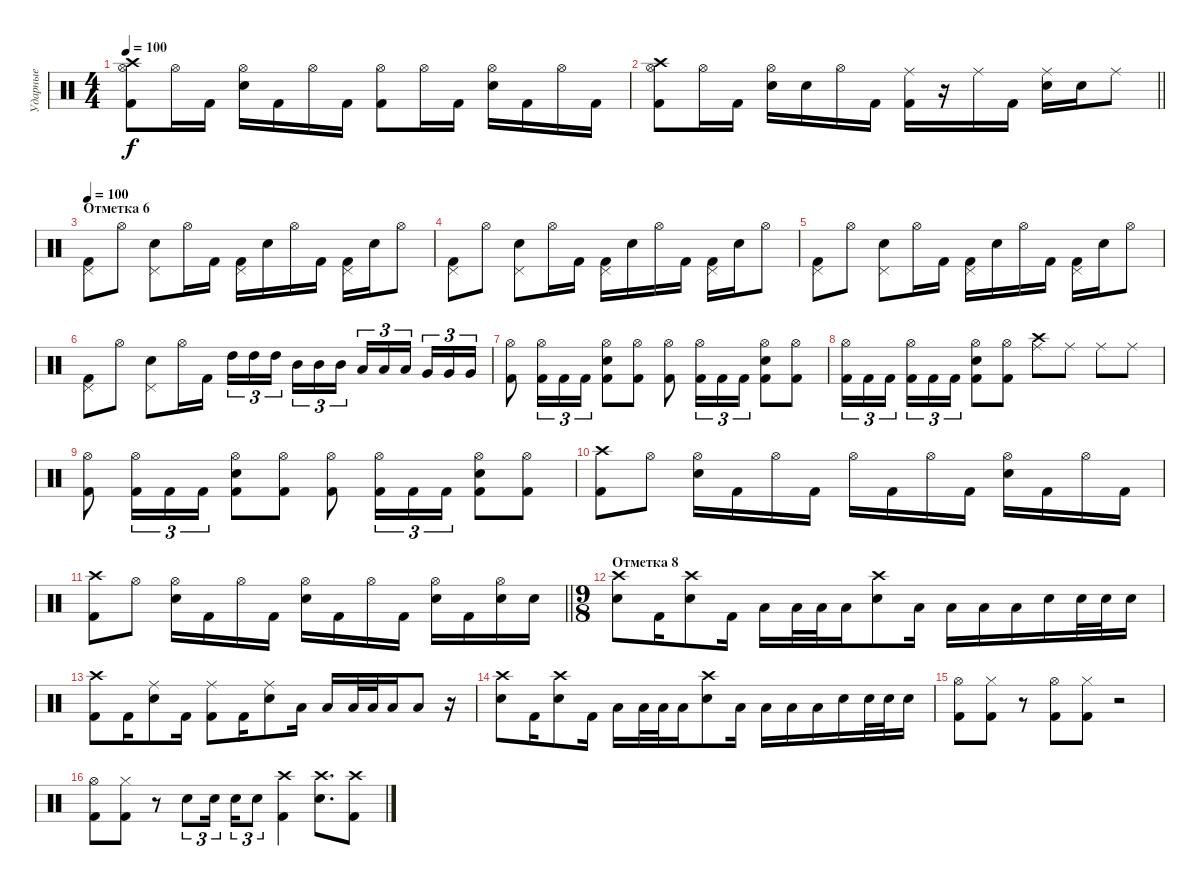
\track ("Ударные" "Ударные") {instrument percussion}
\staff {score}
\articulation defaults
\ts (4 4)
\tempo 100
\clef neutral
\ks c
("Crash high (hit)" "Kick (hit) 2" "Hi-Hat (open)").8{dy f} "Hi-Hat (open)".16 "Kick (hit) 2".16 ("Electric Snare (hit)" "Hi-Hat (open)").16 "Kick (hit) 2".16 "Hi-Hat (open)".16 "Kick (hit) 2".16 ("Kick (hit) 2" "Hi-Hat (open)").8 "Hi-Hat (open)".16 "Kick (hit) 2".16 ("Electric Snare (hit)" "Hi-Hat (open)").16 "Kick (hit) 2".16 "Hi-Hat (open)".16 "Kick (hit) 2".16 |
\barLineRight lightlight
("Crash high (hit)" "Kick (hit) 2" "Hi-Hat (open)").8 "Hi-Hat (open)".16 "Kick (hit) 2".16 ("Electric Snare (hit)" "Hi-Hat (open)").16 "Electric Snare (hit)".16 "Hi-Hat (open)".16 "Kick (hit) 2".16 ("Kick (hit) 2" "Ride (middle)").16 r.16 "Ride (middle)".16 "Kick (hit) 2".16 ("Electric Snare (hit)" "Ride (middle)").16 "Electric Snare (hit)".16 "Ride (middle)".8 |
\section ("" "Отметка 6")
\tempo 90
\tempo 100
("Kick (hit) 2" "Pedal Hi-Hat (hit)").8 "Hi-Hat (open)".8 ("Electric Snare (hit)" "Pedal Hi-Hat (hit)").8 "Hi-Hat (open)".16 "Kick (hit) 2".16 ("Kick (hit) 2" "Pedal Hi-Hat (hit)").16 "Electric Snare (hit)".16 "Hi-Hat (open)".16 "Kick (hit) 2".16 ("Kick (hit) 2" "Pedal Hi-Hat (hit)").16 "Electric Snare (hit)".16 "Hi-Hat (open)".8 |
("Kick (hit) 2" "Pedal Hi-Hat (hit)").8 "Hi-Hat (open)".8 ("Electric Snare (hit)" "Pedal Hi-Hat (hit)").8 "Hi-Hat (open)".16 "Kick (hit) 2".16 ("Kick (hit) 2" "Pedal Hi-Hat (hit)").16 "Electric Snare (hit)".16 "Hi-Hat (open)".16 "Kick (hit) 2".16 ("Kick (hit) 2" "Pedal Hi-Hat (hit)").16 "Electric Snare (hit)".16 "Hi-Hat (open)".8 |
("Kick (hit) 2" "Pedal Hi-Hat (hit)").8 "Hi-Hat (open)".8 ("Electric Snare (hit)" "Pedal Hi-Hat (hit)").8 "Hi-Hat (open)".16 "Kick (hit) 2".16 ("Kick (hit) 2" "Pedal Hi-Hat (hit)").16 "Electric Snare (hit)".16 "Hi-Hat (open)".16 "Kick (hit) 2".16 ("Kick (hit) 2" "Pedal Hi-Hat (hit)").16 "Electric Snare (hit)".16 "Hi-Hat (open)".8 |
("Kick (hit) 2" "Pedal Hi-Hat (hit)").8 "Hi-Hat (open)".8 ("Electric Snare (hit)" "Pedal Hi-Hat (hit)").8 "Hi-Hat (open)".16 "Kick (hit) 2".16 "High Tom (hit)".16{tu (3 2)} "High Tom (hit)".16{tu (3 2)} "High Tom (hit)".16{tu (3 2) beam splitsecondary} "Mid Tom (hit)".16{tu (3 2)} "Mid Tom (hit)".16{tu (3 2)} "Mid Tom (hit)".16{tu (3 2)} "Low Tom (hit)".16{tu (3 2)} "Low Tom (hit)".16{tu (3 2)} "Low Tom (hit)".16{tu (3 2) beam splitsecondary} "Very Low Tom (hit)".16{tu (3 2)} "Very Low Tom (hit)".16{tu (3 2)} "Very Low Tom (hit)".16{tu (3 2)} |
("Kick (hit) 2" "Hi-Hat (open)").8 ("Kick (hit) 2" "Hi-Hat (open)").16{tu (3 2)} "Kick (hit) 2".16{tu (3 2)} "Kick (hit) 2".16{tu (3 2)} ("Kick (hit) 2" "Electric Snare (hit)" "Hi-Hat (open)").8 ("Kick (hit) 2" "Hi-Hat (open)").8 ("Kick (hit) 2" "Hi-Hat (open)").8 ("Kick (hit) 2" "Hi-Hat (open)").16{tu (3 2)} "Kick (hit) 2".16{tu (3 2)} "Kick (hit) 2".16{tu (3 2)} ("Kick (hit) 2" "Electric Snare (hit)" "Hi-Hat (open)").8 ("Kick (hit) 2" "Hi-Hat (open)").8 |
("Kick (hit) 2" "Hi-Hat (open)").16{tu (3 2)} "Kick (hit) 2".16{tu (3 2)} "Kick (hit) 2".16{tu (3 2) beam splitsecondary} ("Kick (hit) 2" "Hi-Hat (open)").16{tu (3 2)} "Kick (hit) 2".16{tu (3 2)} "Kick (hit) 2".16{tu (3 2)} ("Kick (hit) 2" "Electric Snare (hit)" "Hi-Hat (open)").8 ("Kick (hit) 2" "Hi-Hat (open)").8 ("Crash high (hit)" "Ride (middle)").8 "Ride (middle)".8 "Ride (middle)".8 "Ride (middle)".8 |
("Kick (hit) 2" "Hi-Hat (open)").8 ("Kick (hit) 2" "Hi-Hat (open)").16{tu (3 2)} "Kick (hit) 2".16{tu (3 2)} "Kick (hit) 2".16{tu (3 2)} ("Kick (hit) 2" "Electric Snare (hit)" "Hi-Hat (open)").8 ("Kick (hit) 2" "Hi-Hat (open)").8 ("Kick (hit) 2" "Hi-Hat (open)").8 ("Kick (hit) 2" "Hi-Hat (open)").16{tu (3 2)} "Kick (hit) 2".16{tu (3 2)} "Kick (hit) 2".16{tu (3 2)} ("Kick (hit) 2" "Electric Snare (hit)" "Hi-Hat (open)").8 ("Kick (hit) 2" "Hi-Hat (open)").8 |
("Kick (hit) 2" "Crash high (hit)").8 "Hi-Hat (open)".8 ("Electric Snare (hit)" "Hi-Hat (open)").16 "Kick (hit) 2".16 "Hi-Hat (open)".16 "Kick (hit) 2".16 "Hi-Hat (open)".16 "Kick (hit) 2".16 "Hi-Hat (open)".16 "Kick (hit) 2".16 ("Electric Snare (hit)" "Hi-Hat (open)").16 "Kick (hit) 2".16 "Hi-Hat (open)".16 "Kick (hit) 2".16 |
\barLineRight lightlight
("Kick (hit) 2" "Crash high (hit)").8 "Hi-Hat (open)".8 ("Electric Snare (hit)" "Hi-Hat (open)").16 "Kick (hit) 2".16 "Hi-Hat (open)".16 "Kick (hit) 2".16 ("Electric Snare (hit)" "Hi-Hat (open)").16 "Kick (hit) 2".16 "Hi-Hat (open)".16 "Kick (hit) 2".16 ("Electric Snare (hit)" "Hi-Hat (open)").16 "Kick (hit) 2".16 ("Electric Snare (hit)" "Hi-Hat (open)").16 "Electric Snare (hit)".16 |
\ts (9 8)
\section ("" "Отметка 8")
("Electric Snare (hit)" "Crash high (hit)").8 "Kick (hit) 2".16 ("Electric Snare (hit)" "Crash high (hit)").8 "Kick (hit) 2".16 "Low Tom (hit)".16 "Low Tom (hit)".32 "Low Tom (hit)".32 "Low Tom (hit)".16 ("Electric Snare (hit)" "Crash high (hit)").8 "Low Tom (hit)".16 "Low Tom (hit)".16 "Low Tom (hit)".16 "Low Tom (hit)".16 "Electric Snare (hit)".16 "Electric Snare (hit)".32 "Electric Snare (hit)".32 "Electric Snare (hit)".16 |
("Crash high (hit)" "Kick (hit) 2").8 "Kick (hit) 2".16 ("Electric Snare (hit)" "Ride (middle)").8 "Kick (hit) 2".16 ("Kick (hit) 2" "Ride (middle)").8 "Kick (hit) 2".16 ("Electric Snare (hit)" "Ride (middle)").8 "Low Tom (hit)".16 "Low Tom (hit)".16 "Low Tom (hit)".32 "Low Tom (hit)".32 "Low Tom (hit)".16 "Low Tom (hit)".8 r.16 |
("Electric Snare (hit)" "Crash high (hit)").8 "Kick (hit) 2".16 ("Electric Snare (hit)" "Crash high (hit)").8 "Kick (hit) 2".16 "Low Tom (hit)".16 "Low Tom (hit)".32 "Low Tom (hit)".32 "Low Tom (hit)".16 ("Electric Snare (hit)" "Crash high (hit)").8 "Low Tom (hit)".16 "Low Tom (hit)".16 "Low Tom (hit)".16 "Low Tom (hit)".16 "Electric Snare (hit)".16 "Electric Snare (hit)".32 "Electric Snare (hit)".32 "Electric Snare (hit)".16 |
("Kick (hit) 2" "Hi-Hat (open)").8 ("Hi-Hat (closed)" "Kick (hit) 2").8 r.8 ("Kick (hit) 2" "Hi-Hat (open)").8 ("Hi-Hat (closed)" "Kick (hit) 2").8 r.2 |
("Kick (hit) 2" "Hi-Hat (open)").8 ("Kick (hit) 2" "Hi-Hat (closed)").8 r.8 "Electric Snare (hit)".8{tu (3 2)} "Electric Snare (hit)".16{tu (3 2) beam splitsecondary} "Electric Snare (hit)".16{tu (3 2)} "Electric Snare (hit)".8{tu (3 2)} ("Kick (hit) 2" "Crash high (hit)").4 ("Crash high (hit)" "Electric Snare (hit)").8{d} ("Crash high (hit)" "Kick (hit) 2").8
